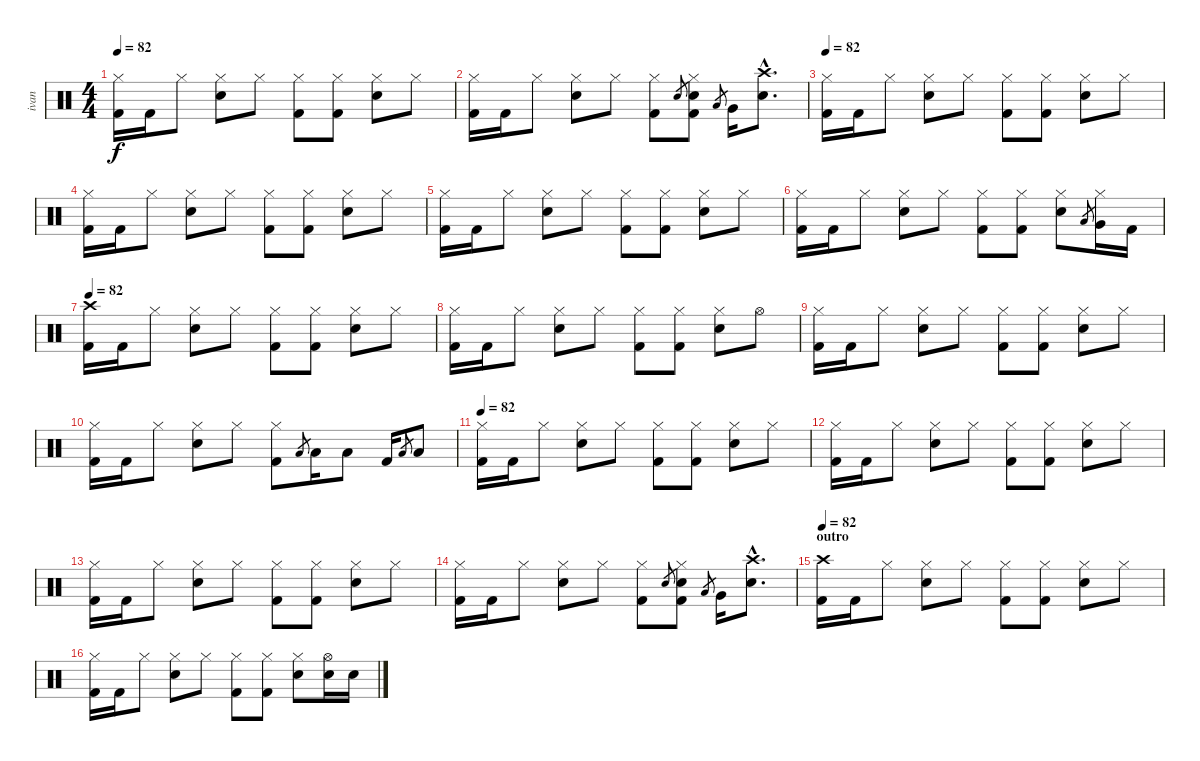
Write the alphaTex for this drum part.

\track ("ivan" "ivan") {instrument percussion}
\staff {score}
\articulation defaults
\ts (4 4)
\tempo 82
\clef neutral
\ks c
("Hi-Hat (closed)" "Kick (hit) 2").16{dy f} "Kick (hit) 2".16 "Hi-Hat (closed)".8 ("Hi-Hat (closed)" "Electric Snare (hit)").8 "Hi-Hat (closed)".8 ("Hi-Hat (closed)" "Kick (hit) 2").8 ("Hi-Hat (closed)" "Kick (hit) 2").8 ("Hi-Hat (closed)" "Electric Snare (hit)").8 "Hi-Hat (closed)".8 |
("Hi-Hat (closed)" "Kick (hit) 2").16 "Kick (hit) 2".16 "Hi-Hat (closed)".8 ("Hi-Hat (closed)" "Electric Snare (hit)").8 "Hi-Hat (closed)".8 ("Hi-Hat (closed)" "Kick (hit) 2").8 "Electric Snare (hit)".8{gr} ("Hi-Hat (closed)" "Electric Snare (hit)" "Kick (hit) 2").8 "Low Tom (hit)".8{gr} "Very Low Tom (hit)".16 ("Crash high (hit)"{hac} "Electric Snare (hit)"{hac}).8{d} |
\tempo 82
("Hi-Hat (closed)" "Kick (hit) 2").16 "Kick (hit) 2".16 "Hi-Hat (closed)".8 ("Hi-Hat (closed)" "Electric Snare (hit)").8 "Hi-Hat (closed)".8 ("Hi-Hat (closed)" "Kick (hit) 2").8 ("Hi-Hat (closed)" "Kick (hit) 2").8 ("Hi-Hat (closed)" "Electric Snare (hit)").8 "Hi-Hat (closed)".8 |
("Hi-Hat (closed)" "Kick (hit) 2").16 "Kick (hit) 2".16 "Hi-Hat (closed)".8 ("Hi-Hat (closed)" "Electric Snare (hit)").8 "Hi-Hat (closed)".8 ("Hi-Hat (closed)" "Kick (hit) 2").8 ("Hi-Hat (closed)" "Kick (hit) 2").8 ("Hi-Hat (closed)" "Electric Snare (hit)").8 "Hi-Hat (closed)".8 |
("Hi-Hat (closed)" "Kick (hit) 2").16 "Kick (hit) 2".16 "Hi-Hat (closed)".8 ("Hi-Hat (closed)" "Electric Snare (hit)").8 "Hi-Hat (closed)".8 ("Hi-Hat (closed)" "Kick (hit) 2").8 ("Hi-Hat (closed)" "Kick (hit) 2").8 ("Hi-Hat (closed)" "Electric Snare (hit)").8 "Hi-Hat (closed)".8 |
("Hi-Hat (closed)" "Kick (hit) 2").16 "Kick (hit) 2".16 "Hi-Hat (closed)".8 ("Hi-Hat (closed)" "Electric Snare (hit)").8 "Hi-Hat (closed)".8 ("Hi-Hat (closed)" "Kick (hit) 2").8 ("Hi-Hat (closed)" "Kick (hit) 2").8 ("Hi-Hat (closed)" "Electric Snare (hit)").8 "Low Tom (hit)".8{gr} ("Hi-Hat (closed)" "Very Low Tom (hit)").16 "Kick (hit) 2".16 |
\tempo 82
("Crash high (hit)" "Kick (hit) 2").16 "Kick (hit) 2".16 "Hi-Hat (closed)".8 ("Hi-Hat (closed)" "Electric Snare (hit)").8 "Hi-Hat (closed)".8 ("Hi-Hat (closed)" "Kick (hit) 2").8 ("Hi-Hat (closed)" "Kick (hit) 2").8 ("Hi-Hat (closed)" "Electric Snare (hit)").8 "Hi-Hat (closed)".8 |
("Hi-Hat (closed)" "Kick (hit) 2").16 "Kick (hit) 2".16 "Hi-Hat (closed)".8 ("Hi-Hat (closed)" "Electric Snare (hit)").8 "Hi-Hat (closed)".8 ("Hi-Hat (closed)" "Kick (hit) 2").8 ("Hi-Hat (closed)" "Kick (hit) 2").8 ("Hi-Hat (closed)" "Electric Snare (hit)").8 "Hi-Hat (open)".8 |
("Hi-Hat (closed)" "Kick (hit) 2").16 "Kick (hit) 2".16 "Hi-Hat (closed)".8 ("Hi-Hat (closed)" "Electric Snare (hit)").8 "Hi-Hat (closed)".8 ("Hi-Hat (closed)" "Kick (hit) 2").8 ("Hi-Hat (closed)" "Kick (hit) 2").8 ("Hi-Hat (closed)" "Electric Snare (hit)").8 "Hi-Hat (closed)".8 |
("Hi-Hat (closed)" "Kick (hit) 2").16 "Kick (hit) 2".16 "Hi-Hat (closed)".8 ("Hi-Hat (closed)" "Electric Snare (hit)").8 "Hi-Hat (closed)".8 ("Hi-Hat (closed)" "Kick (hit) 2").8 "Low Tom (hit)".8{gr} "Low Tom (hit)".16 "Low Tom (hit)".8 "Kick (hit) 2".16 "Low Tom (hit)".8{gr} "Low Tom (hit)".8 |
\tempo 82
("Hi-Hat (closed)" "Kick (hit) 2").16 "Kick (hit) 2".16 "Hi-Hat (closed)".8 ("Hi-Hat (closed)" "Electric Snare (hit)").8 "Hi-Hat (closed)".8 ("Hi-Hat (closed)" "Kick (hit) 2").8 ("Hi-Hat (closed)" "Kick (hit) 2").8 ("Hi-Hat (closed)" "Electric Snare (hit)").8 "Hi-Hat (closed)".8 |
("Hi-Hat (closed)" "Kick (hit) 2").16 "Kick (hit) 2".16 "Hi-Hat (closed)".8 ("Hi-Hat (closed)" "Electric Snare (hit)").8 "Hi-Hat (closed)".8 ("Hi-Hat (closed)" "Kick (hit) 2").8 ("Hi-Hat (closed)" "Kick (hit) 2").8 ("Hi-Hat (closed)" "Electric Snare (hit)").8 "Hi-Hat (closed)".8 |
("Hi-Hat (closed)" "Kick (hit) 2").16 "Kick (hit) 2".16 "Hi-Hat (closed)".8 ("Hi-Hat (closed)" "Electric Snare (hit)").8 "Hi-Hat (closed)".8 ("Hi-Hat (closed)" "Kick (hit) 2").8 ("Hi-Hat (closed)" "Kick (hit) 2").8 ("Hi-Hat (closed)" "Electric Snare (hit)").8 "Hi-Hat (closed)".8 |
("Hi-Hat (closed)" "Kick (hit) 2").16 "Kick (hit) 2".16 "Hi-Hat (closed)".8 ("Hi-Hat (closed)" "Electric Snare (hit)").8 "Hi-Hat (closed)".8 ("Hi-Hat (closed)" "Kick (hit) 2").8 "Electric Snare (hit)".8{gr} ("Hi-Hat (closed)" "Electric Snare (hit)" "Kick (hit) 2").8 "Low Tom (hit)".8{gr} "Very Low Tom (hit)".16 ("Crash high (hit)"{hac} "Electric Snare (hit)"{hac}).8{d} |
\section ("" "outro")
\tempo 82
("Crash high (hit)" "Kick (hit) 2").16 "Kick (hit) 2".16 "Hi-Hat (closed)".8 ("Hi-Hat (closed)" "Electric Snare (hit)").8 "Hi-Hat (closed)".8 ("Hi-Hat (closed)" "Kick (hit) 2").8 ("Hi-Hat (closed)" "Kick (hit) 2").8 ("Hi-Hat (closed)" "Electric Snare (hit)").8 "Hi-Hat (closed)".8 |
("Hi-Hat (closed)" "Kick (hit) 2").16 "Kick (hit) 2".16 "Hi-Hat (closed)".8 ("Hi-Hat (closed)" "Electric Snare (hit)").8 "Hi-Hat (closed)".8 ("Hi-Hat (closed)" "Kick (hit) 2").8 ("Hi-Hat (closed)" "Kick (hit) 2").8 ("Hi-Hat (closed)" "Electric Snare (hit)").8 ("Hi-Hat (open)" "Electric Snare (hit)").16 "Electric Snare (hit)".16
